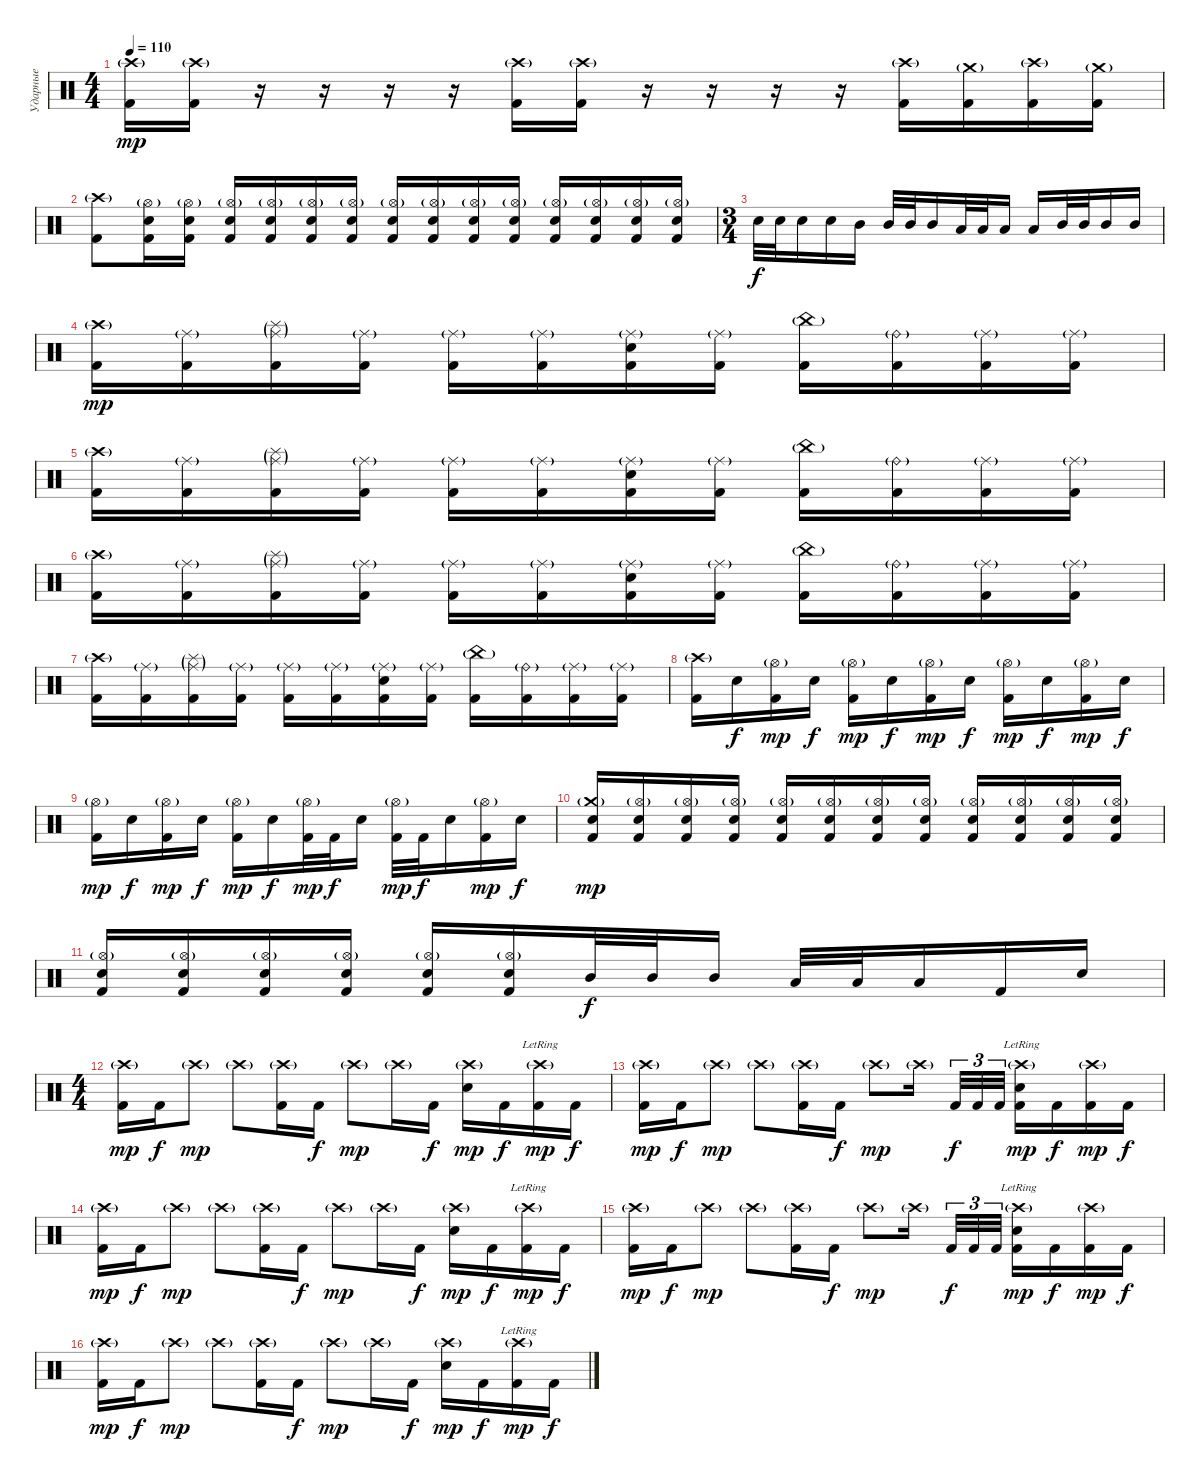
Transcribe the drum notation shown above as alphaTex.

\track ("Ударные" "Ударные") {instrument percussion}
\staff {score}
\articulation defaults
\ts (4 4)
\tempo 110
\clef neutral
\ks c
("Crash high (hit)"{g} "Kick (hit) 2").16{dy mp} ("Crash high (hit)"{g} "Kick (hit) 2").16 r.16{volume 0} r.16 r.16 r.16 ("Crash high (hit)"{g} "Kick (hit) 2").16{volume 16} ("Crash high (hit)"{g} "Kick (hit) 2").16 r.16{volume 0} r.16 r.16 r.16 ("Crash high (hit)"{g} "Kick (hit) 2").16{volume 16} ("Crash medium (hit)"{g} "Kick (hit) 2").16 ("Crash high (hit)"{g} "Kick (hit) 2").16 ("Crash medium (hit)"{g} "Kick (hit) 2").16 |
("Crash high (hit)"{g} "Kick (hit) 2").8 ("Hi-Hat (open)"{g} "Electric Snare (hit)" "Kick (hit) 2").16 ("Hi-Hat (open)"{g} "Electric Snare (hit)" "Kick (hit) 2").16 ("Hi-Hat (open)"{g} "Electric Snare (hit)" "Kick (hit) 2").16 ("Hi-Hat (open)"{g} "Electric Snare (hit)" "Kick (hit) 2").16 ("Hi-Hat (open)"{g} "Electric Snare (hit)" "Kick (hit) 2").16 ("Hi-Hat (open)"{g} "Electric Snare (hit)" "Kick (hit) 2").16 ("Hi-Hat (open)"{g} "Electric Snare (hit)" "Kick (hit) 2").16 ("Hi-Hat (open)"{g} "Electric Snare (hit)" "Kick (hit) 2").16 ("Hi-Hat (open)"{g} "Electric Snare (hit)" "Kick (hit) 2").16 ("Hi-Hat (open)"{g} "Electric Snare (hit)" "Kick (hit) 2").16 ("Hi-Hat (open)"{g} "Electric Snare (hit)" "Kick (hit) 2").16 ("Hi-Hat (open)"{g} "Electric Snare (hit)" "Kick (hit) 2").16 ("Hi-Hat (open)"{g} "Electric Snare (hit)" "Kick (hit) 2").16 ("Hi-Hat (open)"{g} "Electric Snare (hit)" "Kick (hit) 2").16 |
\ts (3 4)
"Electric Snare (hit)".32{dy f} "Electric Snare (hit)".32 "Electric Snare (hit)".16 "Electric Snare (hit)".16 "Mid Tom (hit)".16 "Mid Tom (hit)".32 "Mid Tom (hit)".32 "Mid Tom (hit)".16 "Low Tom (hit)".32 "Low Tom (hit)".32 "Low Tom (hit)".16 "Low Tom (hit)".16 "Mid Tom (hit)".32 "Mid Tom (hit)".32 "Mid Tom (hit)".16 "Mid Tom (hit)".16 |
("Crash high (hit)"{g} "Kick (hit) 2").16{dy mp} ("Ride (middle)"{g} "Kick (hit) 2").16 ("Ride (middle)"{g} "Splash (hit)"{g} "Kick (hit) 2").16 ("Ride (middle)"{g} "Kick (hit) 2").16 ("Ride (middle)"{g} "Kick (hit) 2").16 ("Ride (middle)"{g} "Kick (hit) 2").16 ("Ride (middle)"{g} "Electric Snare (hit)" "Kick (hit) 2").16 ("Ride (middle)"{g} "Kick (hit) 2").16 ("China (hit)"{g} "Kick (hit) 2").16 ("Ride (bell)"{g} "Kick (hit) 2").16 ("Ride (middle)"{g} "Kick (hit) 2").16 ("Ride (middle)"{g} "Kick (hit) 2").16 |
("Crash high (hit)"{g} "Kick (hit) 2").16 ("Ride (middle)"{g} "Kick (hit) 2").16 ("Ride (middle)"{g} "Splash (hit)"{g} "Kick (hit) 2").16 ("Ride (middle)"{g} "Kick (hit) 2").16 ("Ride (middle)"{g} "Kick (hit) 2").16 ("Ride (middle)"{g} "Kick (hit) 2").16 ("Ride (middle)"{g} "Electric Snare (hit)" "Kick (hit) 2").16 ("Ride (middle)"{g} "Kick (hit) 2").16 ("China (hit)"{g} "Kick (hit) 2").16 ("Ride (bell)"{g} "Kick (hit) 2").16 ("Ride (middle)"{g} "Kick (hit) 2").16 ("Ride (middle)"{g} "Kick (hit) 2").16 |
("Crash high (hit)"{g} "Kick (hit) 2").16 ("Ride (middle)"{g} "Kick (hit) 2").16 ("Ride (middle)"{g} "Splash (hit)"{g} "Kick (hit) 2").16 ("Ride (middle)"{g} "Kick (hit) 2").16 ("Ride (middle)"{g} "Kick (hit) 2").16 ("Ride (middle)"{g} "Kick (hit) 2").16 ("Ride (middle)"{g} "Electric Snare (hit)" "Kick (hit) 2").16 ("Ride (middle)"{g} "Kick (hit) 2").16 ("China (hit)"{g} "Kick (hit) 2").16 ("Ride (bell)"{g} "Kick (hit) 2").16 ("Ride (middle)"{g} "Kick (hit) 2").16 ("Ride (middle)"{g} "Kick (hit) 2").16 |
("Crash high (hit)"{g} "Kick (hit) 2").16 ("Ride (middle)"{g} "Kick (hit) 2").16 ("Ride (middle)"{g} "Splash (hit)"{g} "Kick (hit) 2").16 ("Ride (middle)"{g} "Kick (hit) 2").16 ("Ride (middle)"{g} "Kick (hit) 2").16 ("Ride (middle)"{g} "Kick (hit) 2").16 ("Ride (middle)"{g} "Electric Snare (hit)" "Kick (hit) 2").16 ("Ride (middle)"{g} "Kick (hit) 2").16 ("China (hit)"{g} "Kick (hit) 2").16 ("Ride (bell)"{g} "Kick (hit) 2").16 ("Ride (middle)"{g} "Kick (hit) 2").16 ("Ride (middle)"{g} "Kick (hit) 2").16 |
("Crash high (hit)"{g} "Kick (hit) 2").16 "Electric Snare (hit)".16{dy f} ("Hi-Hat (open)"{g} "Kick (hit) 2").16{dy mp} "Electric Snare (hit)".16{dy f} ("Hi-Hat (open)"{g} "Kick (hit) 2").16{dy mp} "Electric Snare (hit)".16{dy f} ("Hi-Hat (open)"{g} "Kick (hit) 2").16{dy mp} "Electric Snare (hit)".16{dy f} ("Hi-Hat (open)"{g} "Kick (hit) 2").16{dy mp} "Electric Snare (hit)".16{dy f} ("Hi-Hat (open)"{g} "Kick (hit) 2").16{dy mp} "Electric Snare (hit)".16{dy f} |
("Hi-Hat (open)"{g} "Kick (hit) 2").16{dy mp} "Electric Snare (hit)".16{dy f} ("Hi-Hat (open)"{g} "Kick (hit) 2").16{dy mp} "Electric Snare (hit)".16{dy f} ("Hi-Hat (open)"{g} "Kick (hit) 2").16{dy mp} "Electric Snare (hit)".16{dy f} ("Hi-Hat (open)"{g} "Kick (hit) 2").32{dy mp} "Kick (hit) 2".32{dy f} "Electric Snare (hit)".16 ("Hi-Hat (open)"{g} "Kick (hit) 2").32{dy mp} "Kick (hit) 2".32{dy f} "Electric Snare (hit)".16 ("Hi-Hat (open)"{g} "Kick (hit) 2").16{dy mp} "Electric Snare (hit)".16{dy f} |
("Crash medium (hit)"{g} "Electric Snare (hit)" "Kick (hit) 2").16{dy mp} ("Hi-Hat (open)"{g} "Electric Snare (hit)" "Kick (hit) 2").16 ("Hi-Hat (open)"{g} "Electric Snare (hit)" "Kick (hit) 2").16 ("Hi-Hat (open)"{g} "Electric Snare (hit)" "Kick (hit) 2").16 ("Hi-Hat (open)"{g} "Electric Snare (hit)" "Kick (hit) 2").16 ("Hi-Hat (open)"{g} "Electric Snare (hit)" "Kick (hit) 2").16 ("Hi-Hat (open)"{g} "Electric Snare (hit)" "Kick (hit) 2").16 ("Hi-Hat (open)"{g} "Electric Snare (hit)" "Kick (hit) 2").16 ("Hi-Hat (open)"{g} "Electric Snare (hit)" "Kick (hit) 2").16 ("Hi-Hat (open)"{g} "Electric Snare (hit)" "Kick (hit) 2").16 ("Hi-Hat (open)"{g} "Electric Snare (hit)" "Kick (hit) 2").16 ("Hi-Hat (open)"{g} "Electric Snare (hit)" "Kick (hit) 2").16 |
("Hi-Hat (open)"{g} "Electric Snare (hit)" "Kick (hit) 2").16 ("Hi-Hat (open)"{g} "Electric Snare (hit)" "Kick (hit) 2").16 ("Hi-Hat (open)"{g} "Electric Snare (hit)" "Kick (hit) 2").16 ("Hi-Hat (open)"{g} "Electric Snare (hit)" "Kick (hit) 2").16 ("Hi-Hat (open)"{g} "Electric Snare (hit)" "Kick (hit) 2").16 ("Hi-Hat (open)"{g} "Electric Snare (hit)" "Kick (hit) 2").16 "Mid Tom (hit)".32{dy f} "Mid Tom (hit)".32 "Mid Tom (hit)".16 "Low Tom (hit)".32 "Low Tom (hit)".32 "Low Tom (hit)".16 "Kick (hit) 2".16 "Electric Snare (hit)".16 |
\ts (4 4)
("Crash high (hit)"{g} "Kick (hit) 2").16{dy mp} "Kick (hit) 2".16{dy f} "Crash high (hit)"{g}.8{dy mp} "Crash high (hit)"{g}.8 ("Crash high (hit)"{g} "Kick (hit) 2").16 "Kick (hit) 2".16{dy f} "Crash high (hit)"{g}.8{dy mp} "Crash high (hit)"{g}.16 "Kick (hit) 2".16{dy f} ("Crash high (hit)"{g} "Electric Snare (hit)").16{dy mp} "Kick (hit) 2".16{dy f} ("Crash high (hit)"{g lr} "Kick (hit) 2").16{dy mp} "Kick (hit) 2".16{dy f} |
("Crash high (hit)"{g} "Kick (hit) 2").16{dy mp} "Kick (hit) 2".16{dy f} "Crash high (hit)"{g}.8{dy mp} "Crash high (hit)"{g}.8 ("Crash high (hit)"{g} "Kick (hit) 2").16 "Kick (hit) 2".16{dy f} "Crash high (hit)"{g}.8{dy mp} "Crash high (hit)"{g}.16 "Kick (hit) 2".32{tu (3 2) dy f} "Kick (hit) 2".32{tu (3 2)} "Kick (hit) 2".32{tu (3 2)} ("Crash high (hit)"{g lr} "Electric Snare (hit)" "Kick (hit) 2").16{dy mp} "Kick (hit) 2".16{dy f} ("Crash high (hit)"{g} "Kick (hit) 2").16{dy mp} "Kick (hit) 2".16{dy f} |
("Crash high (hit)"{g} "Kick (hit) 2").16{dy mp} "Kick (hit) 2".16{dy f} "Crash high (hit)"{g}.8{dy mp} "Crash high (hit)"{g}.8 ("Crash high (hit)"{g} "Kick (hit) 2").16 "Kick (hit) 2".16{dy f} "Crash high (hit)"{g}.8{dy mp} "Crash high (hit)"{g}.16 "Kick (hit) 2".16{dy f} ("Crash high (hit)"{g} "Electric Snare (hit)").16{dy mp} "Kick (hit) 2".16{dy f} ("Crash high (hit)"{g lr} "Kick (hit) 2").16{dy mp} "Kick (hit) 2".16{dy f} |
("Crash high (hit)"{g} "Kick (hit) 2").16{dy mp} "Kick (hit) 2".16{dy f} "Crash high (hit)"{g}.8{dy mp} "Crash high (hit)"{g}.8 ("Crash high (hit)"{g} "Kick (hit) 2").16 "Kick (hit) 2".16{dy f} "Crash high (hit)"{g}.8{dy mp} "Crash high (hit)"{g}.16 "Kick (hit) 2".32{tu (3 2) dy f} "Kick (hit) 2".32{tu (3 2)} "Kick (hit) 2".32{tu (3 2)} ("Crash high (hit)"{g lr} "Electric Snare (hit)" "Kick (hit) 2").16{dy mp} "Kick (hit) 2".16{dy f} ("Crash high (hit)"{g} "Kick (hit) 2").16{dy mp} "Kick (hit) 2".16{dy f} |
("Crash high (hit)"{g} "Kick (hit) 2").16{dy mp} "Kick (hit) 2".16{dy f} "Crash high (hit)"{g}.8{dy mp} "Crash high (hit)"{g}.8 ("Crash high (hit)"{g} "Kick (hit) 2").16 "Kick (hit) 2".16{dy f} "Crash high (hit)"{g}.8{dy mp} "Crash high (hit)"{g}.16 "Kick (hit) 2".16{dy f} ("Crash high (hit)"{g} "Electric Snare (hit)").16{dy mp} "Kick (hit) 2".16{dy f} ("Crash high (hit)"{g lr} "Kick (hit) 2").16{dy mp} "Kick (hit) 2".16{dy f}
